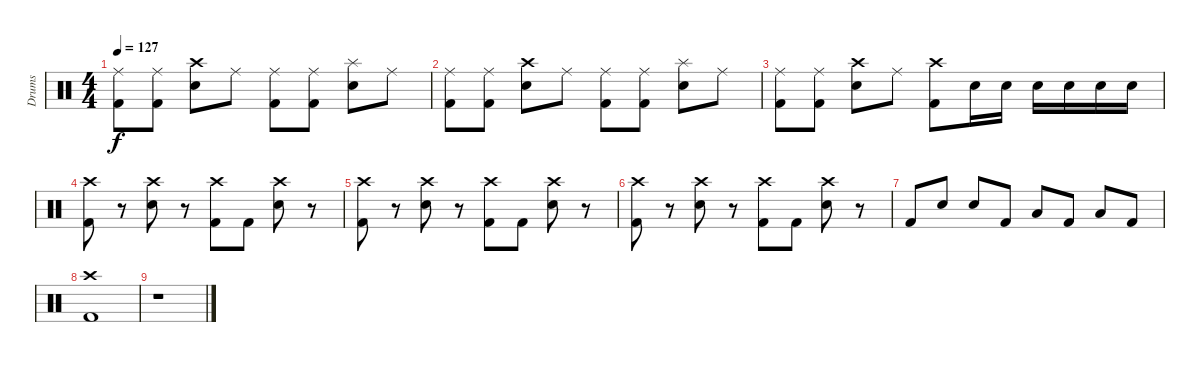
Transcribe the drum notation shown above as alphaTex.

\track ("Drums" "Drums") {instrument percussion}
\staff {score}
\articulation defaults
\ts (4 4)
\tempo 127
\clef neutral
\ks c
("Ride (middle)" "Kick (hit) 2").8{dy f} ("Ride (middle)" "Kick (hit) 2").8 ("Crash high (hit)" "Snare (hit) 2").8 "Ride (middle)".8 ("Ride (middle)" "Kick (hit) 2").8 ("Ride (middle)" "Kick (hit) 2").8 ("Splash (hit)" "Snare (hit) 2").8 "Ride (middle)".8 |
("Ride (middle)" "Kick (hit) 2").8 ("Ride (middle)" "Kick (hit) 2").8 ("Crash high (hit)" "Snare (hit) 2").8 "Ride (middle)".8 ("Ride (middle)" "Kick (hit) 2").8 ("Ride (middle)" "Kick (hit) 2").8 ("Splash (hit)" "Snare (hit) 2").8 "Ride (middle)".8 |
("Ride (middle)" "Kick (hit) 2").8 ("Ride (middle)" "Kick (hit) 2").8 ("Crash high (hit)" "Snare (hit) 2").8 "Ride (middle)".8 ("Crash high (hit)" "Kick (hit) 2").8 "Snare (hit) 2".16 "Snare (hit) 2".16 "Snare (hit) 2".16 "Snare (hit) 2".16 "Snare (hit) 2".16 "Snare (hit) 2".16 |
("Crash high (hit)" "Kick (hit) 2").8 r.8 ("Crash high (hit)" "Snare (hit) 2").8 r.8 ("Crash high (hit)" "Kick (hit) 2").8 "Kick (hit) 2".8 ("Crash high (hit)" "Snare (hit) 2").8 r.8 |
("Crash high (hit)" "Kick (hit) 2").8 r.8 ("Crash high (hit)" "Snare (hit) 2").8 r.8 ("Crash high (hit)" "Kick (hit) 2").8 "Kick (hit) 2".8 ("Crash high (hit)" "Snare (hit) 2").8 r.8 |
("Crash high (hit)" "Kick (hit) 2").8 r.8 ("Crash high (hit)" "Snare (hit) 2").8 r.8 ("Crash high (hit)" "Kick (hit) 2").8 "Kick (hit) 2".8 ("Crash high (hit)" "Snare (hit) 2").8 r.8 |
"Kick (hit) 2".8 "Snare (hit) 2".8 "Snare (hit) 2".8 "Kick (hit) 2".8 "Low Tom (hit)".8 "Kick (hit) 2".8 "Low Floor Tom (hit)".8 "Kick (hit) 2".8 |
("Crash high (hit)" "Kick (hit) 2").1 |
r.1
